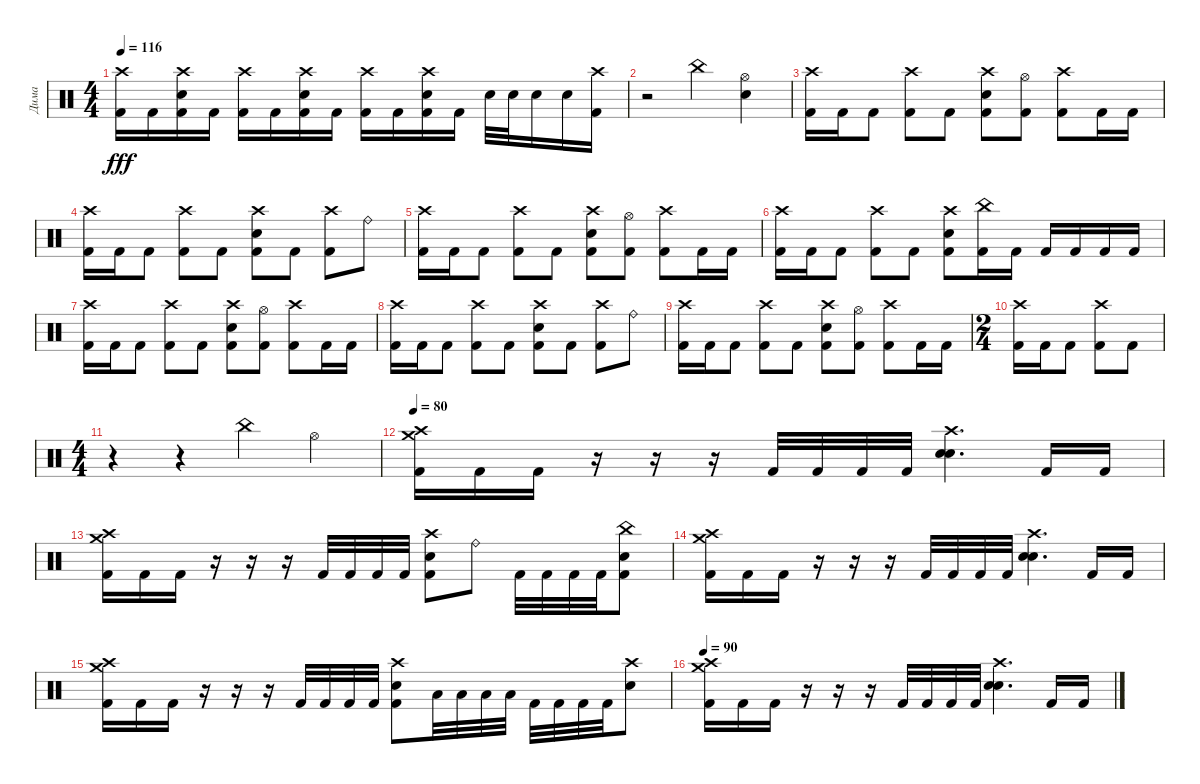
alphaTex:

\track ("Дима " "Дима ") {instrument percussion}
\staff {score}
\articulation defaults
\ts (4 4)
\tempo 116
\clef neutral
\ks c
("Crash high (hit)" "Kick (hit) 2").16{dy fff} "Kick (hit) 2".16 ("Crash high (hit)" "Snare (hit) 2" "Kick (hit) 2").16 "Kick (hit) 2".16 ("Crash high (hit)" "Kick (hit) 2").16 "Kick (hit) 2".16 ("Crash high (hit)" "Snare (hit) 2" "Kick (hit) 2").16 "Kick (hit) 2".16 ("Crash high (hit)" "Kick (hit) 2").16 "Kick (hit) 2".16 ("Crash high (hit)" "Snare (hit) 2" "Kick (hit) 2").16 "Kick (hit) 2".16 "Snare (hit) 2".32 "Snare (hit) 2".32 "Snare (hit) 2".16 "Snare (hit) 2".16 ("Crash high (hit)" "Kick (hit) 2").16 |
r.2 "China (hit)".4 ("Hi-Hat (open)" "Snare (hit) 2").4 |
("Crash high (hit)" "Kick (hit) 2").16 "Kick (hit) 2".16 "Kick (hit) 2".8 ("Crash high (hit)" "Kick (hit) 2").8 "Kick (hit) 2".8 ("Crash high (hit)" "Snare (hit) 2" "Kick (hit) 2").8 ("Hi-Hat (open)" "Kick (hit) 2").8 ("Crash high (hit)" "Kick (hit) 2").8 "Kick (hit) 2".16 "Kick (hit) 2".16 |
("Crash high (hit)" "Kick (hit) 2").16 "Kick (hit) 2".16 "Kick (hit) 2".8 ("Crash high (hit)" "Kick (hit) 2").8 "Kick (hit) 2".8 ("Crash high (hit)" "Snare (hit) 2" "Kick (hit) 2").8 "Kick (hit) 2".8 ("Crash high (hit)" "Kick (hit) 2").8 "Ride (bell)".8 |
("Crash high (hit)" "Kick (hit) 2").16 "Kick (hit) 2".16 "Kick (hit) 2".8 ("Crash high (hit)" "Kick (hit) 2").8 "Kick (hit) 2".8 ("Crash high (hit)" "Snare (hit) 2" "Kick (hit) 2").8 ("Hi-Hat (open)" "Kick (hit) 2").8 ("Crash high (hit)" "Kick (hit) 2").8 "Kick (hit) 2".16 "Kick (hit) 2".16 |
("Crash high (hit)" "Kick (hit) 2").16 "Kick (hit) 2".16 "Kick (hit) 2".8 ("Crash high (hit)" "Kick (hit) 2").8 "Kick (hit) 2".8 ("Crash high (hit)" "Snare (hit) 2" "Kick (hit) 2").8 ("China (hit)" "Kick (hit) 2").16 "Kick (hit) 2".16 "Kick (hit) 2".16 "Kick (hit) 2".16 "Kick (hit) 2".16 "Kick (hit) 2".16 |
("Crash high (hit)" "Kick (hit) 2").16 "Kick (hit) 2".16 "Kick (hit) 2".8 ("Crash high (hit)" "Kick (hit) 2").8 "Kick (hit) 2".8 ("Crash high (hit)" "Snare (hit) 2" "Kick (hit) 2").8 ("Hi-Hat (open)" "Kick (hit) 2").8 ("Crash high (hit)" "Kick (hit) 2").8 "Kick (hit) 2".16 "Kick (hit) 2".16 |
("Crash high (hit)" "Kick (hit) 2").16 "Kick (hit) 2".16 "Kick (hit) 2".8 ("Crash high (hit)" "Kick (hit) 2").8 "Kick (hit) 2".8 ("Crash high (hit)" "Snare (hit) 2" "Kick (hit) 2").8 "Kick (hit) 2".8 ("Crash high (hit)" "Kick (hit) 2").8 "Ride (bell)".8 |
("Crash high (hit)" "Kick (hit) 2").16 "Kick (hit) 2".16 "Kick (hit) 2".8 ("Crash high (hit)" "Kick (hit) 2").8 "Kick (hit) 2".8 ("Crash high (hit)" "Snare (hit) 2" "Kick (hit) 2").8 ("Hi-Hat (open)" "Kick (hit) 2").8 ("Crash high (hit)" "Kick (hit) 2").8 "Kick (hit) 2".16 "Kick (hit) 2".16 |
\ts (2 4)
("Crash high (hit)" "Kick (hit) 2").16 "Kick (hit) 2".16 "Kick (hit) 2".8 ("Crash high (hit)" "Kick (hit) 2").8 "Kick (hit) 2".8 |
\ts (4 4)
r.4 r.4 "China (hit)".4 "Hi-Hat (open)".4 |
\tempo 80
("Crash high (hit)" "Crash medium (hit)" "Kick (hit) 2").16 "Kick (hit) 2".16 "Kick (hit) 2".16 r.16 r.16 r.16 "Kick (hit) 2".32 "Kick (hit) 2".32 "Kick (hit) 2".32 "Kick (hit) 2".32 ("Crash high (hit)" "Snare (hit) 2" "Snare (hit) 2").4{d} "Kick (hit) 2".16 "Kick (hit) 2".16 |
("Crash high (hit)" "Crash medium (hit)" "Kick (hit) 2").16 "Kick (hit) 2".16 "Kick (hit) 2".16 r.16 r.16 r.16 "Kick (hit) 2".32 "Kick (hit) 2".32 "Kick (hit) 2".32 "Kick (hit) 2".32 ("Crash high (hit)" "Snare (hit) 2" "Kick (hit) 2").8 "Ride (bell)".8 "Kick (hit) 2".32 "Kick (hit) 2".32 "Kick (hit) 2".32 "Kick (hit) 2".32 ("China (hit)" "Snare (hit) 2" "Kick (hit) 2").8 |
("Crash high (hit)" "Crash medium (hit)" "Kick (hit) 2").16 "Kick (hit) 2".16 "Kick (hit) 2".16 r.16 r.16 r.16 "Kick (hit) 2".32 "Kick (hit) 2".32 "Kick (hit) 2".32 "Kick (hit) 2".32 ("Crash high (hit)" "Snare (hit) 2" "Snare (hit) 2").4{d} "Kick (hit) 2".16 "Kick (hit) 2".16 |
("Crash high (hit)" "Crash medium (hit)" "Kick (hit) 2").16 "Kick (hit) 2".16 "Kick (hit) 2".16 r.16 r.16 r.16 "Kick (hit) 2".32 "Kick (hit) 2".32 "Kick (hit) 2".32 "Kick (hit) 2".32 ("Crash high (hit)" "Snare (hit) 2" "Kick (hit) 2").8 "Low Tom (hit)".32 "Low Tom (hit)".32 "Low Tom (hit)".32 "Low Tom (hit)".32 "Kick (hit) 2".32 "Kick (hit) 2".32 "Kick (hit) 2".32 "Kick (hit) 2".32 ("Crash high (hit)" "Snare (hit) 2").8 |
\tempo 80
\tempo 90
("Crash high (hit)" "Crash medium (hit)" "Kick (hit) 2").16 "Kick (hit) 2".16 "Kick (hit) 2".16 r.16 r.16 r.16 "Kick (hit) 2".32 "Kick (hit) 2".32 "Kick (hit) 2".32 "Kick (hit) 2".32 ("Crash high (hit)" "Snare (hit) 2" "Snare (hit) 2").4{d} "Kick (hit) 2".16 "Kick (hit) 2".16
